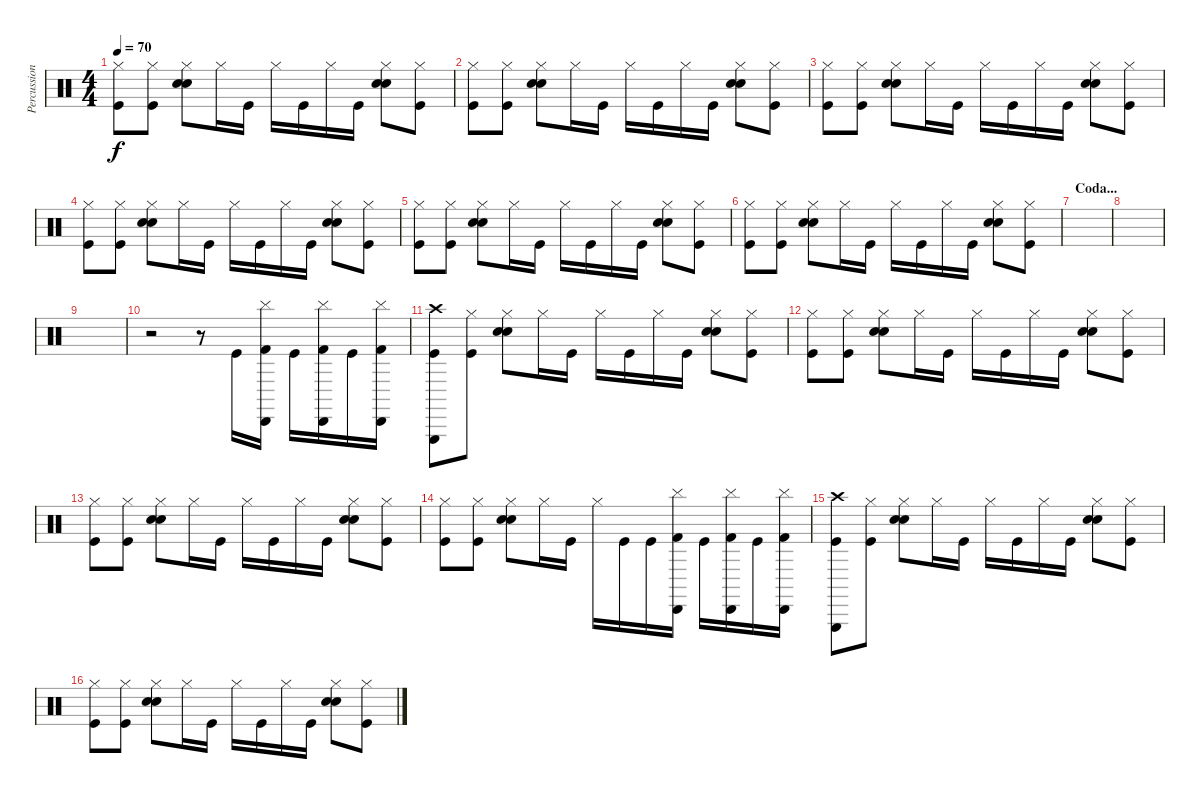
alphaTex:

\track ("Percussion" "Percussion") {instrument percussion}
\staff {score}
\articulation defaults
\ts (4 4)
\tempo 70
\clef neutral
\ks c
("Kick (hit)" "Hi-Hat (closed)").8{dy f} ("Kick (hit)" "Hi-Hat (closed)").8 ("Snare (hit) 2" "Electric Snare (hit)" "Hi-Hat (closed)").8 "Hi-Hat (closed)".16 "Kick (hit)".16 "Hi-Hat (closed)".16 "Kick (hit)".16 "Hi-Hat (closed)".16 "Kick (hit)".16 ("Snare (hit) 2" "Electric Snare (hit)" "Hi-Hat (closed)").8 ("Kick (hit)" "Hi-Hat (closed)").8 |
("Kick (hit)" "Hi-Hat (closed)").8 ("Kick (hit)" "Hi-Hat (closed)").8 ("Snare (hit) 2" "Electric Snare (hit)" "Hi-Hat (closed)").8 "Hi-Hat (closed)".16 "Kick (hit)".16 "Hi-Hat (closed)".16 "Kick (hit)".16 "Hi-Hat (closed)".16 "Kick (hit)".16 ("Snare (hit) 2" "Electric Snare (hit)" "Hi-Hat (closed)").8 ("Kick (hit)" "Hi-Hat (closed)").8 |
("Kick (hit)" "Hi-Hat (closed)").8 ("Kick (hit)" "Hi-Hat (closed)").8 ("Snare (hit) 2" "Electric Snare (hit)" "Hi-Hat (closed)").8 "Hi-Hat (closed)".16 "Kick (hit)".16 "Hi-Hat (closed)".16 "Kick (hit)".16 "Hi-Hat (closed)".16 "Kick (hit)".16 ("Snare (hit) 2" "Electric Snare (hit)" "Hi-Hat (closed)").8 ("Kick (hit)" "Hi-Hat (closed)").8 |
("Kick (hit)" "Hi-Hat (closed)").8 ("Kick (hit)" "Hi-Hat (closed)").8 ("Snare (hit) 2" "Electric Snare (hit)" "Hi-Hat (closed)").8 "Hi-Hat (closed)".16 "Kick (hit)".16 "Hi-Hat (closed)".16 "Kick (hit)".16 "Hi-Hat (closed)".16 "Kick (hit)".16 ("Snare (hit) 2" "Electric Snare (hit)" "Hi-Hat (closed)").8 ("Kick (hit)" "Hi-Hat (closed)").8 |
("Kick (hit)" "Hi-Hat (closed)").8 ("Kick (hit)" "Hi-Hat (closed)").8 ("Snare (hit) 2" "Electric Snare (hit)" "Hi-Hat (closed)").8 "Hi-Hat (closed)".16 "Kick (hit)".16 "Hi-Hat (closed)".16 "Kick (hit)".16 "Hi-Hat (closed)".16 "Kick (hit)".16 ("Snare (hit) 2" "Electric Snare (hit)" "Hi-Hat (closed)").8 ("Kick (hit)" "Hi-Hat (closed)").8 |
("Kick (hit)" "Hi-Hat (closed)").8 ("Kick (hit)" "Hi-Hat (closed)").8 ("Snare (hit) 2" "Electric Snare (hit)" "Hi-Hat (closed)").8 "Hi-Hat (closed)".16 "Kick (hit)".16 "Hi-Hat (closed)".16 "Kick (hit)".16 "Hi-Hat (closed)".16 "Kick (hit)".16 ("Snare (hit) 2" "Electric Snare (hit)" "Hi-Hat (closed)").8 ("Kick (hit)" "Hi-Hat (closed)").8 |
\section ("" "Coda...")
|
|
|
r.2 r.8 "Kick (hit)".16 ("Kick (hit) 2" "Cabasa (hit)" "Cymbal (hit)").16 "Kick (hit)".16 ("Kick (hit) 2" "Cabasa (hit)" "Cymbal (hit)").16 "Kick (hit)".16 ("Kick (hit) 2" "Cabasa (hit)" "Cymbal (hit)").16 |
("Kick (hit)" "Triangle (hit)" "Crash high (hit)").8 ("Kick (hit)" "Hi-Hat (closed)").8 ("Snare (hit) 2" "Electric Snare (hit)" "Hi-Hat (closed)").8 "Hi-Hat (closed)".16 "Kick (hit)".16 "Hi-Hat (closed)".16 "Kick (hit)".16 "Hi-Hat (closed)".16 "Kick (hit)".16 ("Snare (hit) 2" "Electric Snare (hit)" "Hi-Hat (closed)").8 ("Kick (hit)" "Hi-Hat (closed)").8 |
("Kick (hit)" "Hi-Hat (closed)").8 ("Kick (hit)" "Hi-Hat (closed)").8 ("Snare (hit) 2" "Electric Snare (hit)" "Hi-Hat (closed)").8 "Hi-Hat (closed)".16 "Kick (hit)".16 "Hi-Hat (closed)".16 "Kick (hit)".16 "Hi-Hat (closed)".16 "Kick (hit)".16 ("Snare (hit) 2" "Electric Snare (hit)" "Hi-Hat (closed)").8 ("Kick (hit)" "Hi-Hat (closed)").8 |
("Kick (hit)" "Hi-Hat (closed)").8 ("Kick (hit)" "Hi-Hat (closed)").8 ("Snare (hit) 2" "Electric Snare (hit)" "Hi-Hat (closed)").8 "Hi-Hat (closed)".16 "Kick (hit)".16 "Hi-Hat (closed)".16 "Kick (hit)".16 "Hi-Hat (closed)".16 "Kick (hit)".16 ("Snare (hit) 2" "Electric Snare (hit)" "Hi-Hat (closed)").8 ("Kick (hit)" "Hi-Hat (closed)").8 |
("Kick (hit)" "Hi-Hat (closed)").8 ("Kick (hit)" "Hi-Hat (closed)").8 ("Snare (hit) 2" "Electric Snare (hit)" "Hi-Hat (closed)").8 "Hi-Hat (closed)".16 "Kick (hit)".16 "Hi-Hat (closed)".16 "Kick (hit)".16 "Kick (hit)".16 ("Kick (hit) 2" "Cabasa (hit)" "Cymbal (hit)").16 "Kick (hit)".16 ("Kick (hit) 2" "Cabasa (hit)" "Cymbal (hit)").16 "Kick (hit)".16 ("Kick (hit) 2" "Cabasa (hit)" "Cymbal (hit)").16 |
("Kick (hit)" "Triangle (hit)" "Crash high (hit)").8 ("Kick (hit)" "Hi-Hat (closed)").8 ("Snare (hit) 2" "Electric Snare (hit)" "Hi-Hat (closed)").8 "Hi-Hat (closed)".16 "Kick (hit)".16 "Hi-Hat (closed)".16 "Kick (hit)".16 "Hi-Hat (closed)".16 "Kick (hit)".16 ("Snare (hit) 2" "Electric Snare (hit)" "Hi-Hat (closed)").8 ("Kick (hit)" "Hi-Hat (closed)").8 |
("Kick (hit)" "Hi-Hat (closed)").8 ("Kick (hit)" "Hi-Hat (closed)").8 ("Snare (hit) 2" "Electric Snare (hit)" "Hi-Hat (closed)").8 "Hi-Hat (closed)".16 "Kick (hit)".16 "Hi-Hat (closed)".16 "Kick (hit)".16 "Hi-Hat (closed)".16 "Kick (hit)".16 ("Snare (hit) 2" "Electric Snare (hit)" "Hi-Hat (closed)").8 ("Kick (hit)" "Hi-Hat (closed)").8
